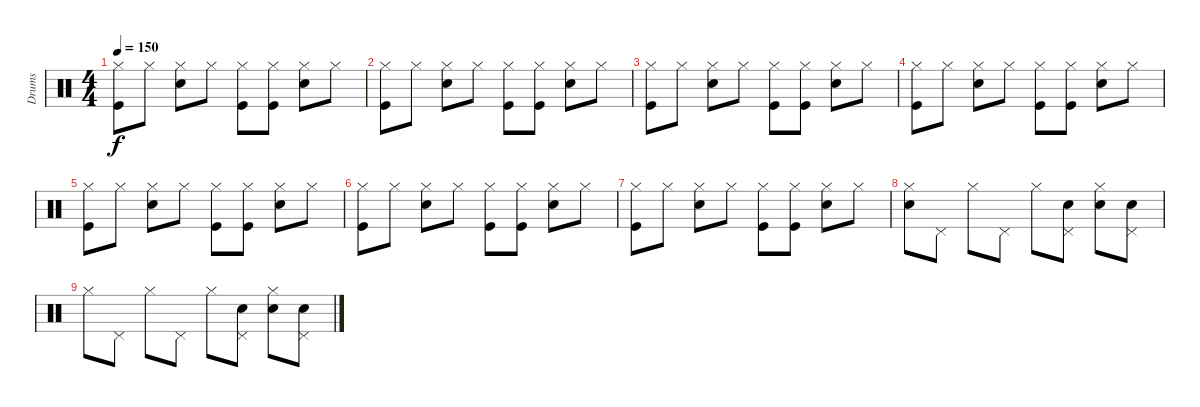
\track ("Drums" "Drums") {instrument percussion}
\staff {score}
\articulation defaults
\ts (4 4)
\tempo 150
\clef neutral
\ks c
("Hi-Hat (closed)" "Kick (hit)").8{dy f} "Hi-Hat (closed)".8 ("Hi-Hat (closed)" "Electric Snare (hit)").8 "Hi-Hat (closed)".8 ("Hi-Hat (closed)" "Kick (hit)").8 ("Hi-Hat (closed)" "Kick (hit)").8 ("Hi-Hat (closed)" "Electric Snare (hit)").8 "Hi-Hat (closed)".8 |
("Hi-Hat (closed)" "Kick (hit)").8 "Hi-Hat (closed)".8 ("Hi-Hat (closed)" "Electric Snare (hit)").8 "Hi-Hat (closed)".8 ("Hi-Hat (closed)" "Kick (hit)").8 ("Hi-Hat (closed)" "Kick (hit)").8 ("Hi-Hat (closed)" "Electric Snare (hit)").8 "Hi-Hat (closed)".8 |
("Hi-Hat (closed)" "Kick (hit)").8 "Hi-Hat (closed)".8 ("Hi-Hat (closed)" "Electric Snare (hit)").8 "Hi-Hat (closed)".8 ("Hi-Hat (closed)" "Kick (hit)").8 ("Hi-Hat (closed)" "Kick (hit)").8 ("Hi-Hat (closed)" "Electric Snare (hit)").8 "Hi-Hat (closed)".8 |
("Hi-Hat (closed)" "Kick (hit)").8 "Hi-Hat (closed)".8 ("Hi-Hat (closed)" "Electric Snare (hit)").8 "Hi-Hat (closed)".8 ("Hi-Hat (closed)" "Kick (hit)").8 ("Hi-Hat (closed)" "Kick (hit)").8 ("Hi-Hat (closed)" "Electric Snare (hit)").8 "Hi-Hat (closed)".8 |
("Hi-Hat (closed)" "Kick (hit)").8 "Hi-Hat (closed)".8 ("Hi-Hat (closed)" "Electric Snare (hit)").8 "Hi-Hat (closed)".8 ("Hi-Hat (closed)" "Kick (hit)").8 ("Hi-Hat (closed)" "Kick (hit)").8 ("Hi-Hat (closed)" "Electric Snare (hit)").8 "Hi-Hat (closed)".8 |
("Hi-Hat (closed)" "Kick (hit)").8 "Hi-Hat (closed)".8 ("Hi-Hat (closed)" "Electric Snare (hit)").8 "Hi-Hat (closed)".8 ("Hi-Hat (closed)" "Kick (hit)").8 ("Hi-Hat (closed)" "Kick (hit)").8 ("Hi-Hat (closed)" "Electric Snare (hit)").8 "Hi-Hat (closed)".8 |
("Hi-Hat (closed)" "Kick (hit)").8 "Hi-Hat (closed)".8 ("Hi-Hat (closed)" "Electric Snare (hit)").8 "Hi-Hat (closed)".8 ("Hi-Hat (closed)" "Kick (hit)").8 ("Hi-Hat (closed)" "Kick (hit)").8 ("Hi-Hat (closed)" "Electric Snare (hit)").8 "Hi-Hat (closed)".8 |
("Hi-Hat (closed)" "Electric Snare (hit)").8 "Pedal Hi-Hat (hit)".8 "Hi-Hat (closed)".8 "Pedal Hi-Hat (hit)".8 "Hi-Hat (closed)".8 ("Pedal Hi-Hat (hit)" "Electric Snare (hit)").8 ("Hi-Hat (closed)" "Electric Snare (hit)").8 ("Pedal Hi-Hat (hit)" "Electric Snare (hit)").8 |
"Hi-Hat (closed)".8 "Pedal Hi-Hat (hit)".8 "Hi-Hat (closed)".8 "Pedal Hi-Hat (hit)".8 "Hi-Hat (closed)".8 ("Pedal Hi-Hat (hit)" "Electric Snare (hit)").8 ("Hi-Hat (closed)" "Electric Snare (hit)").8 ("Pedal Hi-Hat (hit)" "Electric Snare (hit)").8
